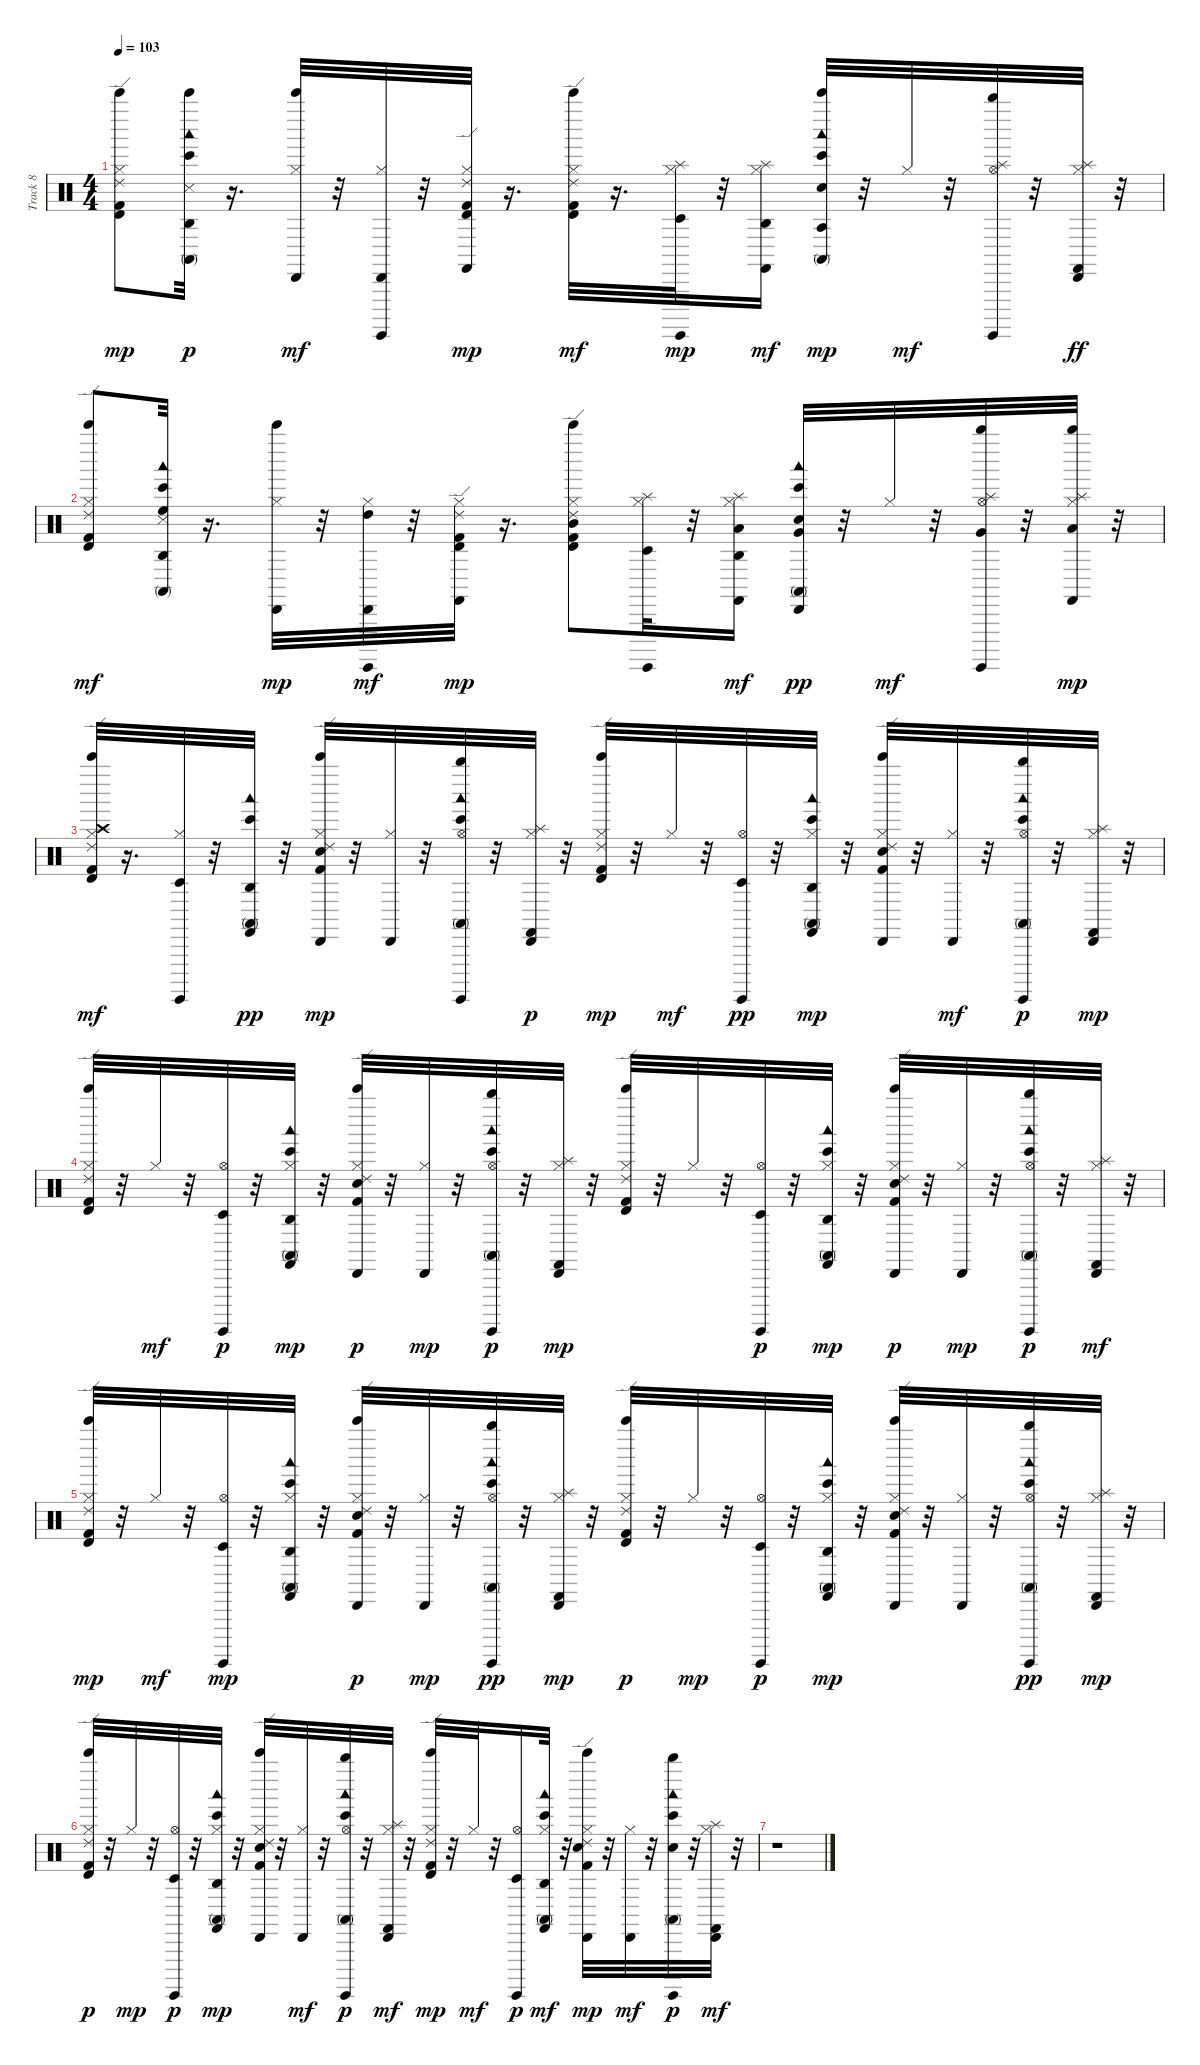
\track ("Track 8" "Track 8") {instrument percussion}
\staff {score}
\articulation defaults
\ts (4 4)
\tempo 103
\clef neutral
\ks c
("Timbale high (hit)" "Ride (edge) 2" "Kick (hit) 2" "Bell Tree (hit)" "Hi-Hat (closed)").8{dy mp} ("Agogo high (hit)" "Conga high (mute)" "Bongo High (hit)" "Snare (side stick) 3" "Woodblock low (hit)" "Bell Tree (hit)").32{dy p} r.16{d} ("Cabasa (hit)" "Bell Tree (hit)" "Hi-Hat (closed)").32{dy mf} r.32 ("Cabasa (hit)" "Surdo (hit)" "Hi-Hat (closed)").32 r.32 ("Timbale high (hit)" "Ride (edge) 2" "Kick (hit) 2" "Castanets (hit)" "Hi-Hat (closed)").32{dy mp} r.16{d} ("Timbale high (hit)" "Ride (edge) 2" "Kick (hit) 2" "Bell Tree (hit)" "Hi-Hat (closed)").32{dy mf} r.16{d} ("Timbale low (hit)" "Surdo (hit)" "Hi-Hat (closed)" "Splash (hit)").32{dy mp} r.32 ("Agogo high (hit)" "Castanets (hit)" "Hi-Hat (closed)" "Splash (hit)").16{dy mf} ("Agogo tow (hit)" "Bongo High (hit)" "Conga high (mute)" "Electric Snare (hit)" "Woodblock low (hit)" "Bell Tree (hit)").32{dy mp} r.32 "Hi-Hat (closed)".32{dy mf} r.32 ("Whistle high (hit)" "Surdo (hit)" "Hi-Hat (open)" "Splash (hit)").32 r.32 ("Cabasa (hit)" "Castanets (hit)" "Hi-Hat (closed)" "Splash (hit)").32{dy ff} r.32 |
("Timbale high (hit)" "Ride (edge) 2" "Kick (hit) 2" "Bell Tree (hit)" "Hi-Hat (closed)").8{dy mf} ("Agogo high (hit)" "Bongo High (hit)" "Conga high (mute)" "Snare (side stick) 3" "Woodblock low (hit)" "High Floor Tom (hit)").32 r.16{d} ("Cabasa (hit)" "Bell Tree (hit)" "Hi-Hat (closed)").32{dy mp} r.32 ("Cabasa (hit)" "High Tom (hit)" "Surdo (hit)" "Hi-Hat (closed)").32{dy mf} r.32 ("Timbale high (hit)" "Ride (edge) 2" "Kick (hit) 2" "Castanets (hit)" "Hi-Hat (closed)").32{dy mp} r.16{d} ("Timbale high (hit)" "Ride (edge) 2" "Kick (hit) 2" "Mid Tom (hit)" "Bell Tree (hit)" "Hi-Hat (closed)").8 ("Timbale low (hit)" "Surdo (hit)" "Hi-Hat (closed)" "Splash (hit)").32 r.32 ("Agogo high (hit)" "Low Tom (hit)" "Castanets (hit)" "Hi-Hat (closed)" "Splash (hit)").16{dy mf} ("Cabasa (hit)" "Bongo High (hit)" "Conga high (mute)" "Electric Snare (hit)" "Woodblock low (hit)" "Very Low Tom (hit)").32{dy pp} r.32 "Hi-Hat (closed)".32{dy mf} r.32 ("Whistle high (hit)" "Very Low Tom (hit)" "Surdo (hit)" "Hi-Hat (open)" "Splash (hit)").32 r.32 ("Whistle high (hit)" "Low Floor Tom (hit)" "Castanets (hit)" "Hi-Hat (closed)" "Splash (hit)").32{dy mp} r.32 |
("Timbale high (hit)" "Ride (edge) 2" "Kick (hit) 2" "Crash high (hit)" "Bell Tree (hit)" "Hi-Hat (closed)").32{dy mf} r.16{d} ("Timbale low (hit)" "Surdo (hit)" "Hi-Hat (closed)").32 r.32 ("Agogo high (hit)" "Bongo High (hit)" "Conga high (mute)" "Woodblock low (hit)" "Castanets (hit)").32{dy pp} r.32 ("Cabasa (hit)" "Ride (edge) 2" "Kick (hit) 2" "Electric Snare (hit)" "Bell Tree (hit)" "Hi-Hat (closed)").32{dy mp} r.32 ("Cabasa (hit)" "Hi-Hat (closed)").32 r.32 ("Whistle high (hit)" "Bongo High (hit)" "Conga high (mute)" "Woodblock low (hit)" "Surdo (hit)" "Hi-Hat (open)").32 r.32 ("Cabasa (hit)" "Castanets (hit)" "Hi-Hat (closed)" "Splash (hit)").32{dy p} r.32 ("Timbale high (hit)" "Ride (edge) 2" "Kick (hit) 2" "Bell Tree (hit)" "Hi-Hat (closed)").32{dy mp} r.32 "Hi-Hat (closed)".32{dy mf} r.32 ("Timbale low (hit)" "Surdo (hit)" "Hi-Hat (open)").32{dy pp} r.32 ("Agogo high (hit)" "Bongo High (hit)" "Conga high (mute)" "Woodblock low (hit)" "Castanets (hit)" "Hi-Hat (closed)").32{dy mp} r.32 ("Cabasa (hit)" "Ride (edge) 2" "Kick (hit) 2" "Electric Snare (hit)" "Bell Tree (hit)" "Hi-Hat (closed)").32 r.32 ("Cabasa (hit)" "Hi-Hat (closed)").32{dy mf} r.32 ("Whistle high (hit)" "Conga high (mute)" "Bongo High (hit)" "Woodblock low (hit)" "Surdo (hit)" "Hi-Hat (open)").32{dy p} r.32 ("Cabasa (hit)" "Castanets (hit)" "Hi-Hat (closed)" "Splash (hit)").32{dy mp} r.32 |
("Timbale high (hit)" "Ride (edge) 2" "Kick (hit) 2" "Bell Tree (hit)" "Hi-Hat (closed)").32 r.32 "Hi-Hat (closed)".32{dy mf} r.32 ("Timbale low (hit)" "Surdo (hit)" "Hi-Hat (open)").32{dy p} r.32 ("Agogo high (hit)" "Bongo High (hit)" "Conga high (mute)" "Woodblock low (hit)" "Castanets (hit)" "Hi-Hat (closed)").32{dy mp} r.32 ("Cabasa (hit)" "Ride (edge) 2" "Kick (hit) 2" "Electric Snare (hit)" "Bell Tree (hit)" "Hi-Hat (closed)").32{dy p} r.32 ("Cabasa (hit)" "Hi-Hat (closed)").32{dy mp} r.32 ("Whistle high (hit)" "Bongo High (hit)" "Conga high (mute)" "Woodblock low (hit)" "Surdo (hit)" "Hi-Hat (open)").32{dy p} r.32 ("Cabasa (hit)" "Castanets (hit)" "Hi-Hat (closed)" "Splash (hit)").32{dy mp} r.32 ("Timbale high (hit)" "Ride (edge) 2" "Kick (hit) 2" "Bell Tree (hit)" "Hi-Hat (closed)").32 r.32 "Hi-Hat (closed)".32 r.32 ("Timbale low (hit)" "Surdo (hit)" "Hi-Hat (open)").32{dy p} r.32 ("Agogo high (hit)" "Bongo High (hit)" "Conga high (mute)" "Woodblock low (hit)" "Castanets (hit)" "Hi-Hat (closed)").32{dy mp} r.32 ("Cabasa (hit)" "Ride (edge) 2" "Kick (hit) 2" "Electric Snare (hit)" "Bell Tree (hit)" "Hi-Hat (closed)").32{dy p} r.32 ("Cabasa (hit)" "Hi-Hat (closed)").32{dy mp} r.32 ("Whistle high (hit)" "Bongo High (hit)" "Conga high (mute)" "Woodblock low (hit)" "Surdo (hit)" "Hi-Hat (open)").32{dy p} r.32 ("Cabasa (hit)" "Castanets (hit)" "Hi-Hat (closed)" "Splash (hit)").32{dy mf} r.32 |
("Timbale high (hit)" "Ride (edge) 2" "Kick (hit) 2" "Bell Tree (hit)" "Hi-Hat (closed)").32{dy mp} r.32 "Hi-Hat (closed)".32{dy mf} r.32 ("Timbale low (hit)" "Surdo (hit)" "Hi-Hat (open)").32{dy mp} r.32 ("Agogo high (hit)" "Conga high (mute)" "Bongo High (hit)" "Woodblock low (hit)" "Castanets (hit)" "Hi-Hat (closed)").32 r.32 ("Cabasa (hit)" "Ride (edge) 2" "Kick (hit) 2" "Electric Snare (hit)" "Bell Tree (hit)" "Hi-Hat (closed)").32{dy p} r.32 ("Cabasa (hit)" "Hi-Hat (closed)").32{dy mp} r.32 ("Whistle high (hit)" "Bongo High (hit)" "Conga high (mute)" "Woodblock low (hit)" "Surdo (hit)" "Hi-Hat (open)").32{dy pp} r.32 ("Cabasa (hit)" "Castanets (hit)" "Hi-Hat (closed)" "Splash (hit)").32{dy mp} r.32 ("Timbale high (hit)" "Ride (edge) 2" "Kick (hit) 2" "Bell Tree (hit)" "Hi-Hat (closed)").32{dy p} r.32 "Hi-Hat (closed)".32{dy mp} r.32 ("Timbale low (hit)" "Surdo (hit)" "Hi-Hat (open)").32{dy p} r.32 ("Agogo high (hit)" "Bongo High (hit)" "Conga high (mute)" "Woodblock low (hit)" "Castanets (hit)" "Hi-Hat (closed)").32{dy mp} r.32 ("Cabasa (hit)" "Ride (edge) 2" "Kick (hit) 2" "Electric Snare (hit)" "Bell Tree (hit)" "Hi-Hat (closed)").32 r.32 ("Cabasa (hit)" "Hi-Hat (closed)").32 r.32 ("Whistle high (hit)" "Conga high (mute)" "Bongo High (hit)" "Woodblock low (hit)" "Surdo (hit)" "Hi-Hat (open)").32{dy pp} r.32 ("Cabasa (hit)" "Castanets (hit)" "Hi-Hat (closed)" "Splash (hit)").32{dy mp} r.32 |
("Timbale high (hit)" "Ride (edge) 2" "Kick (hit) 2" "Bell Tree (hit)" "Hi-Hat (closed)").32{dy p} r.32 "Hi-Hat (closed)".32{dy mp} r.32 ("Timbale low (hit)" "Surdo (hit)" "Hi-Hat (open)").32{dy p} r.32 ("Woodblock low (hit)" "Agogo high (hit)" "Bongo High (hit)" "Conga high (mute)" "Castanets (hit)" "Hi-Hat (closed)").32{dy mp} r.32 ("Cabasa (hit)" "Ride (edge) 2" "Kick (hit) 2" "Electric Snare (hit)" "Bell Tree (hit)" "Hi-Hat (closed)").32 r.32 ("Cabasa (hit)" "Hi-Hat (closed)").32{dy mf} r.32 ("Woodblock low (hit)" "Whistle high (hit)" "Bongo High (hit)" "Conga high (mute)" "Surdo (hit)" "Hi-Hat (open)").32{dy p} r.32 ("Cabasa (hit)" "Castanets (hit)" "Hi-Hat (closed)" "Splash (hit)").32{dy mf} r.32 ("Timbale high (hit)" "Ride (edge) 2" "Kick (hit) 2" "Bell Tree (hit)" "Hi-Hat (closed)").32{dy mp} r.32 "Hi-Hat (closed)".32{dy mf} r.32 ("Timbale low (hit)" "Surdo (hit)" "Hi-Hat (open)").16{dy p} ("Woodblock low (hit)" "Agogo high (hit)" "Bongo High (hit)" "Conga high (mute)" "Castanets (hit)" "Hi-Hat (closed)").32{dy mf} r.32 ("Cabasa (hit)" "Ride (edge) 2" "Kick (hit) 2" "Electric Snare (hit)" "Bell Tree (hit)" "Hi-Hat (closed)").32{dy mp} r.32 ("Cabasa (hit)" "Hi-Hat (closed)").32{dy mf} r.32 ("Woodblock low (hit)" "Whistle high (hit)" "Bongo High (hit)" "Conga high (mute)" "Electric Snare (hit)" "Surdo (hit)").32{dy p} r.32 ("Cabasa (hit)" "Castanets (hit)" "Hi-Hat (closed)" "Splash (hit)").32{dy mf} r.32 |
r.1
